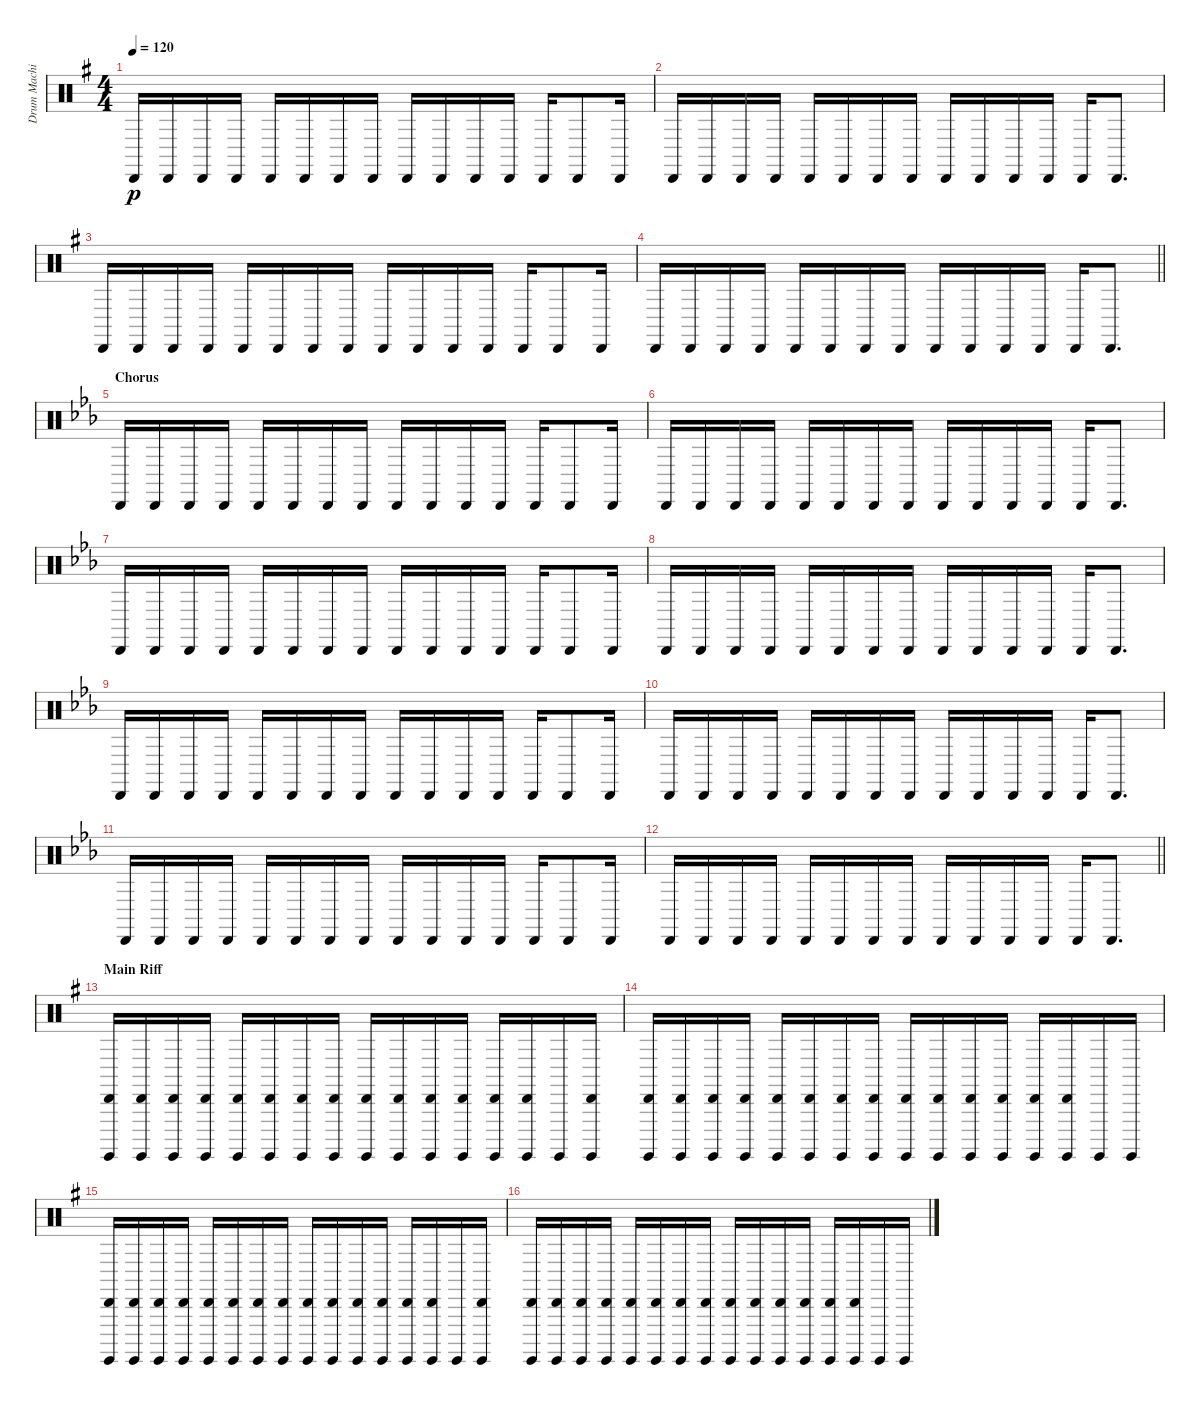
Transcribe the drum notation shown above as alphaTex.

\track ("Drum Machine" "Drum Machi") {instrument percussion}
\staff {score}
\articulation defaults
\ts (4 4)
\tempo 120
\clef neutral
\ks g "Cabasa (hit)".16{dy p} "Cabasa (hit)".16 "Cabasa (hit)".16 "Cabasa (hit)".16 "Cabasa (hit)".16 "Cabasa (hit)".16 "Cabasa (hit)".16 "Cabasa (hit)".16 "Cabasa (hit)".16 "Cabasa (hit)".16 "Cabasa (hit)".16 "Cabasa (hit)".16 "Cabasa (hit)".16 "Cabasa (hit)".8 "Cabasa (hit)".16
|
"Cabasa (hit)".16 "Cabasa (hit)".16 "Cabasa (hit)".16 "Cabasa (hit)".16 "Cabasa (hit)".16 "Cabasa (hit)".16 "Cabasa (hit)".16 "Cabasa (hit)".16 "Cabasa (hit)".16 "Cabasa (hit)".16 "Cabasa (hit)".16 "Cabasa (hit)".16 "Cabasa (hit)".16 "Cabasa (hit)".8{d} |
"Cabasa (hit)".16 "Cabasa (hit)".16 "Cabasa (hit)".16 "Cabasa (hit)".16 "Cabasa (hit)".16 "Cabasa (hit)".16 "Cabasa (hit)".16 "Cabasa (hit)".16 "Cabasa (hit)".16 "Cabasa (hit)".16 "Cabasa (hit)".16 "Cabasa (hit)".16 "Cabasa (hit)".16 "Cabasa (hit)".8 "Cabasa (hit)".16 |
\barLineRight lightlight "Cabasa (hit)".16 "Cabasa (hit)".16 "Cabasa (hit)".16 "Cabasa (hit)".16 "Cabasa (hit)".16 "Cabasa (hit)".16 "Cabasa (hit)".16 "Cabasa (hit)".16 "Cabasa (hit)".16 "Cabasa (hit)".16 "Cabasa (hit)".16 "Cabasa (hit)".16 "Cabasa (hit)".16 "Cabasa (hit)".8{d}
|
\section ("" "Chorus")
\ks eb "Cabasa (hit)".16 "Cabasa (hit)".16 "Cabasa (hit)".16 "Cabasa (hit)".16 "Cabasa (hit)".16 "Cabasa (hit)".16 "Cabasa (hit)".16 "Cabasa (hit)".16 "Cabasa (hit)".16 "Cabasa (hit)".16 "Cabasa (hit)".16 "Cabasa (hit)".16 "Cabasa (hit)".16 "Cabasa (hit)".8 "Cabasa (hit)".16
|
"Cabasa (hit)".16 "Cabasa (hit)".16 "Cabasa (hit)".16 "Cabasa (hit)".16 "Cabasa (hit)".16 "Cabasa (hit)".16 "Cabasa (hit)".16 "Cabasa (hit)".16 "Cabasa (hit)".16 "Cabasa (hit)".16 "Cabasa (hit)".16 "Cabasa (hit)".16 "Cabasa (hit)".16 "Cabasa (hit)".8{d} |
"Cabasa (hit)".16 "Cabasa (hit)".16 "Cabasa (hit)".16 "Cabasa (hit)".16 "Cabasa (hit)".16 "Cabasa (hit)".16 "Cabasa (hit)".16 "Cabasa (hit)".16 "Cabasa (hit)".16 "Cabasa (hit)".16 "Cabasa (hit)".16 "Cabasa (hit)".16 "Cabasa (hit)".16 "Cabasa (hit)".8 "Cabasa (hit)".16 |
"Cabasa (hit)".16 "Cabasa (hit)".16 "Cabasa (hit)".16 "Cabasa (hit)".16 "Cabasa (hit)".16 "Cabasa (hit)".16 "Cabasa (hit)".16 "Cabasa (hit)".16 "Cabasa (hit)".16 "Cabasa (hit)".16 "Cabasa (hit)".16 "Cabasa (hit)".16 "Cabasa (hit)".16 "Cabasa (hit)".8{d} |
"Cabasa (hit)".16 "Cabasa (hit)".16 "Cabasa (hit)".16 "Cabasa (hit)".16 "Cabasa (hit)".16 "Cabasa (hit)".16 "Cabasa (hit)".16 "Cabasa (hit)".16 "Cabasa (hit)".16 "Cabasa (hit)".16 "Cabasa (hit)".16 "Cabasa (hit)".16 "Cabasa (hit)".16 "Cabasa (hit)".8 "Cabasa (hit)".16 |
"Cabasa (hit)".16 "Cabasa (hit)".16 "Cabasa (hit)".16 "Cabasa (hit)".16 "Cabasa (hit)".16 "Cabasa (hit)".16 "Cabasa (hit)".16 "Cabasa (hit)".16 "Cabasa (hit)".16 "Cabasa (hit)".16 "Cabasa (hit)".16 "Cabasa (hit)".16 "Cabasa (hit)".16 "Cabasa (hit)".8{d} |
"Cabasa (hit)".16 "Cabasa (hit)".16 "Cabasa (hit)".16 "Cabasa (hit)".16 "Cabasa (hit)".16 "Cabasa (hit)".16 "Cabasa (hit)".16 "Cabasa (hit)".16 "Cabasa (hit)".16 "Cabasa (hit)".16 "Cabasa (hit)".16 "Cabasa (hit)".16 "Cabasa (hit)".16 "Cabasa (hit)".8 "Cabasa (hit)".16 |
\barLineRight lightlight "Cabasa (hit)".16 "Cabasa (hit)".16 "Cabasa (hit)".16 "Cabasa (hit)".16 "Cabasa (hit)".16 "Cabasa (hit)".16 "Cabasa (hit)".16 "Cabasa (hit)".16 "Cabasa (hit)".16 "Cabasa (hit)".16 "Cabasa (hit)".16 "Cabasa (hit)".16 "Cabasa (hit)".16 "Cabasa (hit)".8{d}
|
\section ("" "Main Riff")
\ks g
("Cabasa (hit)" "Surdo (hit)").16 ("Cabasa (hit)" "Surdo (hit)").16 ("Cabasa (hit)" "Surdo (hit)").16 ("Cabasa (hit)" "Surdo (hit)").16 ("Cabasa (hit)" "Surdo (hit)").16 ("Cabasa (hit)" "Surdo (hit)").16 ("Cabasa (hit)" "Surdo (hit)").16 ("Cabasa (hit)" "Surdo (hit)").16 ("Cabasa (hit)" "Surdo (hit)").16 ("Cabasa (hit)" "Surdo (hit)").16 ("Cabasa (hit)" "Surdo (hit)").16 ("Cabasa (hit)" "Surdo (hit)").16 ("Cabasa (hit)" "Surdo (hit)").16 ("Cabasa (hit)" "Surdo (hit)").16 "Surdo (hit)".16 ("Cabasa (hit)" "Surdo (hit)").16 |
("Cabasa (hit)" "Surdo (hit)").16 ("Cabasa (hit)" "Surdo (hit)").16 ("Cabasa (hit)" "Surdo (hit)").16 ("Cabasa (hit)" "Surdo (hit)").16 ("Cabasa (hit)" "Surdo (hit)").16 ("Cabasa (hit)" "Surdo (hit)").16 ("Cabasa (hit)" "Surdo (hit)").16 ("Cabasa (hit)" "Surdo (hit)").16 ("Cabasa (hit)" "Surdo (hit)").16 ("Cabasa (hit)" "Surdo (hit)").16 ("Cabasa (hit)" "Surdo (hit)").16 ("Cabasa (hit)" "Surdo (hit)").16 ("Cabasa (hit)" "Surdo (hit)").16 ("Cabasa (hit)" "Surdo (hit)").16 "Surdo (hit)".16 "Surdo (hit)".16 |
("Cabasa (hit)" "Surdo (hit)").16 ("Cabasa (hit)" "Surdo (hit)").16 ("Cabasa (hit)" "Surdo (hit)").16 ("Cabasa (hit)" "Surdo (hit)").16 ("Cabasa (hit)" "Surdo (hit)").16 ("Cabasa (hit)" "Surdo (hit)").16 ("Cabasa (hit)" "Surdo (hit)").16 ("Cabasa (hit)" "Surdo (hit)").16 ("Cabasa (hit)" "Surdo (hit)").16 ("Cabasa (hit)" "Surdo (hit)").16 ("Cabasa (hit)" "Surdo (hit)").16 ("Cabasa (hit)" "Surdo (hit)").16 ("Cabasa (hit)" "Surdo (hit)").16 ("Cabasa (hit)" "Surdo (hit)").16 "Surdo (hit)".16 ("Cabasa (hit)" "Surdo (hit)").16 |
("Cabasa (hit)" "Surdo (hit)").16 ("Cabasa (hit)" "Surdo (hit)").16 ("Cabasa (hit)" "Surdo (hit)").16 ("Cabasa (hit)" "Surdo (hit)").16 ("Cabasa (hit)" "Surdo (hit)").16 ("Cabasa (hit)" "Surdo (hit)").16 ("Cabasa (hit)" "Surdo (hit)").16 ("Cabasa (hit)" "Surdo (hit)").16 ("Cabasa (hit)" "Surdo (hit)").16 ("Cabasa (hit)" "Surdo (hit)").16 ("Cabasa (hit)" "Surdo (hit)").16 ("Cabasa (hit)" "Surdo (hit)").16 ("Cabasa (hit)" "Surdo (hit)").16 ("Cabasa (hit)" "Surdo (hit)").16 "Surdo (hit)".16 "Surdo (hit)".16
